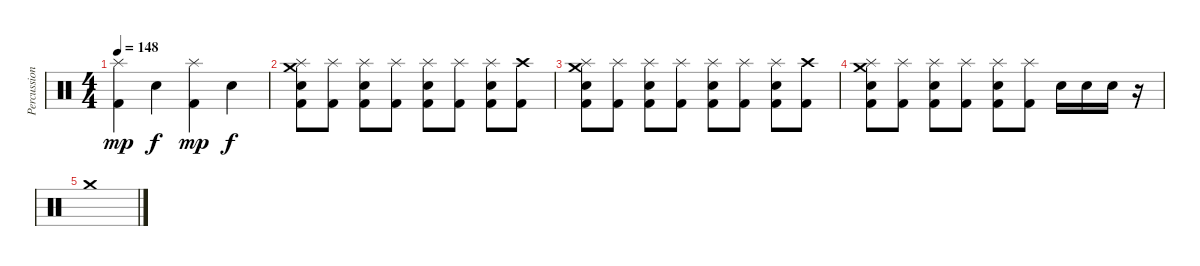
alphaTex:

\track ("Percussion" "Percussion") {instrument percussion}
\staff {score}
\articulation defaults
\ts (4 4)
\tempo 148
\clef neutral
\ks c
("Splash (hit)" "Kick (hit) 2").4{dy mp} "Snare (hit) 2".4{dy f} ("Splash (hit)" "Kick (hit) 2").4{dy mp} "Snare (hit) 2".4{dy f} |
("Crash medium (hit)" "Splash (hit)" "Snare (hit) 2" "Kick (hit) 2").8 ("Splash (hit)" "Kick (hit) 2").8 ("Splash (hit)" "Snare (hit) 2" "Kick (hit) 2").8 ("Splash (hit)" "Kick (hit) 2").8 ("Splash (hit)" "Snare (hit) 2" "Kick (hit) 2").8 ("Splash (hit)" "Kick (hit) 2").8 ("Splash (hit)" "Snare (hit) 2" "Kick (hit) 2").8 ("Crash high (hit)" "Kick (hit) 2").8 |
("Crash medium (hit)" "Splash (hit)" "Snare (hit) 2" "Kick (hit) 2").8 ("Splash (hit)" "Kick (hit) 2").8 ("Splash (hit)" "Snare (hit) 2" "Kick (hit) 2").8 ("Splash (hit)" "Kick (hit) 2").8 ("Splash (hit)" "Snare (hit) 2" "Kick (hit) 2").8 ("Splash (hit)" "Kick (hit) 2").8 ("Splash (hit)" "Snare (hit) 2" "Kick (hit) 2").8 ("Crash high (hit)" "Kick (hit) 2").8 |
("Crash medium (hit)" "Splash (hit)" "Snare (hit) 2" "Kick (hit) 2").8 ("Splash (hit)" "Kick (hit) 2").8 ("Splash (hit)" "Snare (hit) 2" "Kick (hit) 2").8 ("Splash (hit)" "Kick (hit) 2").8 ("Splash (hit)" "Snare (hit) 2" "Kick (hit) 2").8 ("Splash (hit)" "Kick (hit) 2").8 "Snare (hit) 2".16 "Snare (hit) 2".16 "Snare (hit) 2".16 r.16 |
"Crash medium (hit)".1
